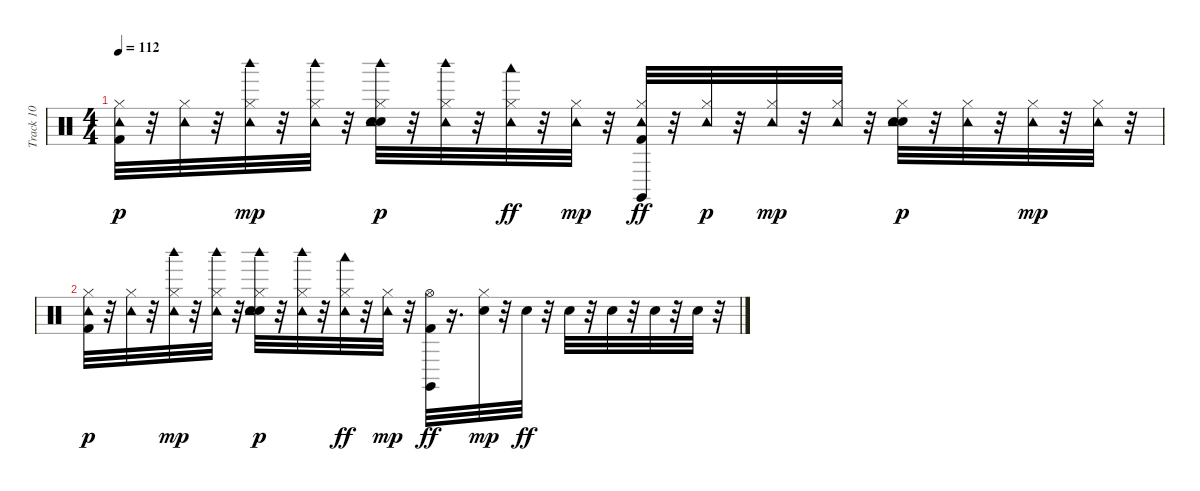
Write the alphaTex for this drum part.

\track ("Track 10" "Track 10") {instrument percussion}
\staff {score}
\articulation defaults
\ts (4 4)
\tempo 112
\clef neutral
\ks c
("Kick (hit) 2" "Hi-Hat (closed)" "Tambourine (hit)").32{dy p} r.32 ("Hi-Hat (closed)" "Tambourine (hit)").32 r.32 ("Hi-Hat (closed)" "Tambourine (hit)" "Woodblock high (hit)").32{dy mp} r.32 ("Hi-Hat (closed)" "Tambourine (hit)" "Woodblock high (hit)").32 r.32 ("Hand Clap (hit)" "Electric Snare (hit)" "Hi-Hat (closed)" "Tambourine (hit)" "Woodblock high (hit)").32{dy p} r.32 ("Hi-Hat (closed)" "Tambourine (hit)" "Woodblock high (hit)").32 r.32 ("Hi-Hat (closed)" "Tambourine (hit)" "Woodblock low (hit)").32{dy ff} r.32 ("Hi-Hat (closed)" "Tambourine (hit)").32{dy mp} r.32 ("Kick (hit) 2" "Hi-Hat (closed)" "Tambourine (hit)" "Claves (hit)").32{dy ff} r.32 ("Hi-Hat (closed)" "Tambourine (hit)").32{dy p} r.32 ("Hi-Hat (closed)" "Tambourine (hit)").32{dy mp} r.32 ("Hi-Hat (closed)" "Tambourine (hit)").32 r.32 ("Hand Clap (hit)" "Electric Snare (hit)" "Hi-Hat (closed)" "Tambourine (hit)").32{dy p} r.32 ("Hi-Hat (closed)" "Tambourine (hit)").32 r.32 ("Hi-Hat (closed)" "Tambourine (hit)").32{dy mp} r.32 ("Hi-Hat (closed)" "Tambourine (hit)").32 r.32 |
("Kick (hit) 2" "Hi-Hat (closed)" "Tambourine (hit)").32{dy p} r.32 ("Hi-Hat (closed)" "Tambourine (hit)").32 r.32 ("Hi-Hat (closed)" "Tambourine (hit)" "Woodblock high (hit)").32{dy mp} r.32 ("Hi-Hat (closed)" "Tambourine (hit)" "Woodblock high (hit)").32 r.32 ("Hand Clap (hit)" "Electric Snare (hit)" "Hi-Hat (closed)" "Tambourine (hit)" "Woodblock high (hit)").32{dy p} r.32 ("Hi-Hat (closed)" "Tambourine (hit)" "Woodblock high (hit)").32 r.32 ("Hi-Hat (closed)" "Tambourine (hit)" "Woodblock low (hit)").32{dy ff} r.32 ("Hi-Hat (closed)" "Tambourine (hit)").32{dy mp} r.32 ("Kick (hit) 2" "Hi-Hat (open)" "Claves (hit)").32{dy ff} r.16{d} ("Electric Snare (hit)" "Hi-Hat (closed)").32{dy mp} r.32 "Electric Snare (hit)".32{dy ff} r.32 "Electric Snare (hit)".32 r.32 "Electric Snare (hit)".32 r.32 "Electric Snare (hit)".32 r.32 "Electric Snare (hit)".32 r.32
